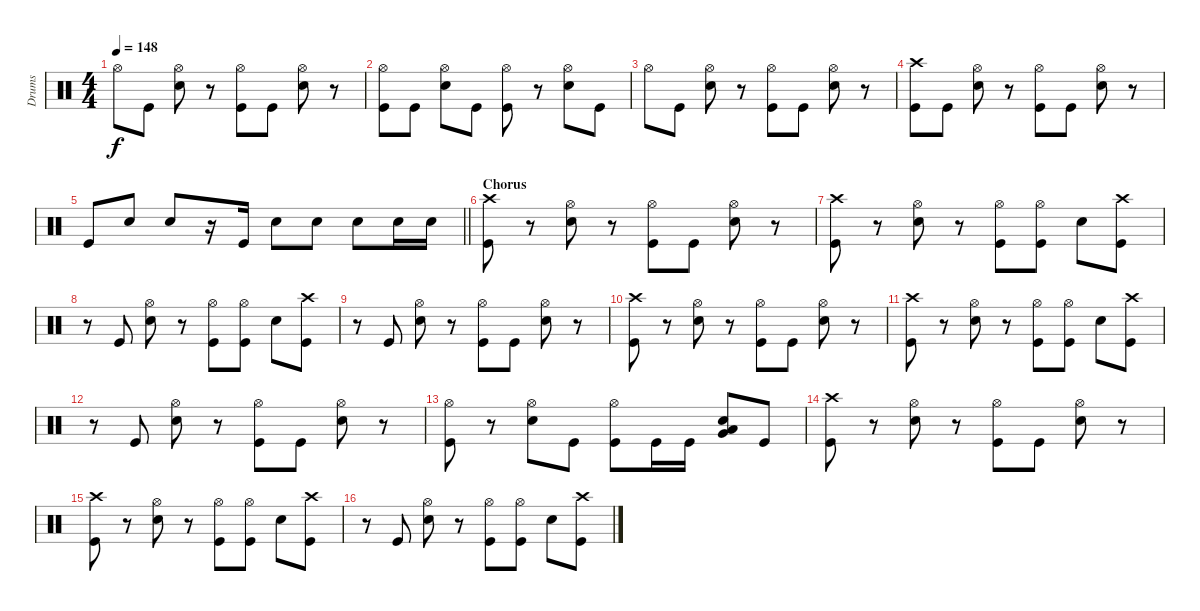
\track ("Drums" "Drums") {instrument percussion}
\staff {score}
\articulation defaults
\ts (4 4)
\tempo 148
\clef neutral
\ks c "Hi-Hat (open)".8{dy f} "Kick (hit)".8
("Hi-Hat (open)" "Snare (hit) 2").8 r.8 ("Hi-Hat (open)" "Kick (hit)").8 "Kick (hit)".8 ("Hi-Hat (open)" "Snare (hit) 2").8 r.8 |
("Hi-Hat (open)" "Kick (hit)").8 "Kick (hit)".8 ("Hi-Hat (open)" "Snare (hit) 2").8 "Kick (hit)".8 ("Hi-Hat (open)" "Kick (hit)").8 r.8 ("Hi-Hat (open)" "Snare (hit) 2").8 "Kick (hit)".8 |
"Hi-Hat (open)".8 "Kick (hit)".8 ("Hi-Hat (open)" "Snare (hit) 2").8 r.8 ("Hi-Hat (open)" "Kick (hit)").8 "Kick (hit)".8 ("Hi-Hat (open)" "Snare (hit) 2").8 r.8 |
("Crash high (hit)" "Kick (hit)").8 "Kick (hit)".8 ("Hi-Hat (open)" "Snare (hit) 2").8 r.8 ("Hi-Hat (open)" "Kick (hit)").8 "Kick (hit)".8 ("Hi-Hat (open)" "Snare (hit) 2").8 r.8 |
\barLineRight lightlight "Kick (hit)".8 "Snare (hit) 2".8 "Snare (hit) 2".8
r.16 "Kick (hit)".16 "Snare (hit) 2".8 "Snare (hit) 2".8 "Snare (hit) 2".8 "Snare (hit) 2".16 "Snare (hit) 2".16 |
\section ("" "Chorus")
("Kick (hit)" "Crash high (hit)").8 r.8 ("Hi-Hat (open)" "Snare (hit) 2").8 r.8 ("Hi-Hat (open)" "Kick (hit)").8 "Kick (hit)".8 ("Hi-Hat (open)" "Snare (hit) 2").8 r.8 |
("Kick (hit)" "Crash high (hit)").8 r.8 ("Snare (hit) 2" "Hi-Hat (open)").8 r.8 ("Hi-Hat (open)" "Kick (hit)").8 ("Kick (hit)" "Hi-Hat (open)").8 "Snare (hit) 2".8 ("Kick (hit)" "Crash high (hit)").8 |
r.8 "Kick (hit)".8 ("Hi-Hat (open)" "Snare (hit) 2").8 r.8 ("Hi-Hat (open)" "Kick (hit)").8 ("Kick (hit)" "Hi-Hat (open)").8 "Snare (hit) 2".8 ("Kick (hit)" "Crash high (hit)").8 |
r.8 "Kick (hit)".8 ("Snare (hit) 2" "Hi-Hat (open)").8 r.8 ("Kick (hit)" "Hi-Hat (open)").8 "Kick (hit)".8 ("Snare (hit) 2" "Hi-Hat (open)").8 r.8 |
("Kick (hit)" "Crash high (hit)").8 r.8 ("Snare (hit) 2" "Hi-Hat (open)").8 r.8 ("Kick (hit)" "Hi-Hat (open)").8 "Kick (hit)".8 ("Snare (hit) 2" "Hi-Hat (open)").8 r.8 |
("Kick (hit)" "Crash high (hit)").8 r.8 ("Snare (hit) 2" "Hi-Hat (open)").8 r.8 ("Hi-Hat (open)" "Kick (hit)").8 ("Kick (hit)" "Hi-Hat (open)").8 "Snare (hit) 2".8 ("Kick (hit)" "Crash high (hit)").8 |
r.8 "Kick (hit)".8 ("Hi-Hat (open)" "Snare (hit) 2").8 r.8 ("Hi-Hat (open)" "Kick (hit)").8 "Kick (hit)".8 ("Hi-Hat (open)" "Snare (hit) 2").8 r.8 |
("Kick (hit)" "Hi-Hat (open)").8 r.8 ("Snare (hit) 2" "Hi-Hat (open)").8 "Kick (hit)".8 ("Kick (hit)" "Hi-Hat (open)").8 "Kick (hit)".16 "Kick (hit)".16 ("Snare (hit) 2" "Low Floor Tom (hit)" "Very Low Tom (hit)").8 "Kick (hit)".8 |
("Kick (hit)" "Crash high (hit)").8 r.8 ("Hi-Hat (open)" "Snare (hit) 2").8 r.8 ("Hi-Hat (open)" "Kick (hit)").8 "Kick (hit)".8 ("Hi-Hat (open)" "Snare (hit) 2").8 r.8 |
("Kick (hit)" "Crash high (hit)").8 r.8 ("Snare (hit) 2" "Hi-Hat (open)").8 r.8 ("Hi-Hat (open)" "Kick (hit)").8 ("Hi-Hat (open)" "Kick (hit)").8 "Snare (hit) 2".8 ("Kick (hit)" "Crash high (hit)").8 |
r.8 "Kick (hit)".8 ("Hi-Hat (open)" "Snare (hit) 2").8 r.8 ("Hi-Hat (open)" "Kick (hit)").8 ("Kick (hit)" "Hi-Hat (open)").8 "Snare (hit) 2".8 ("Kick (hit)" "Crash high (hit)").8
